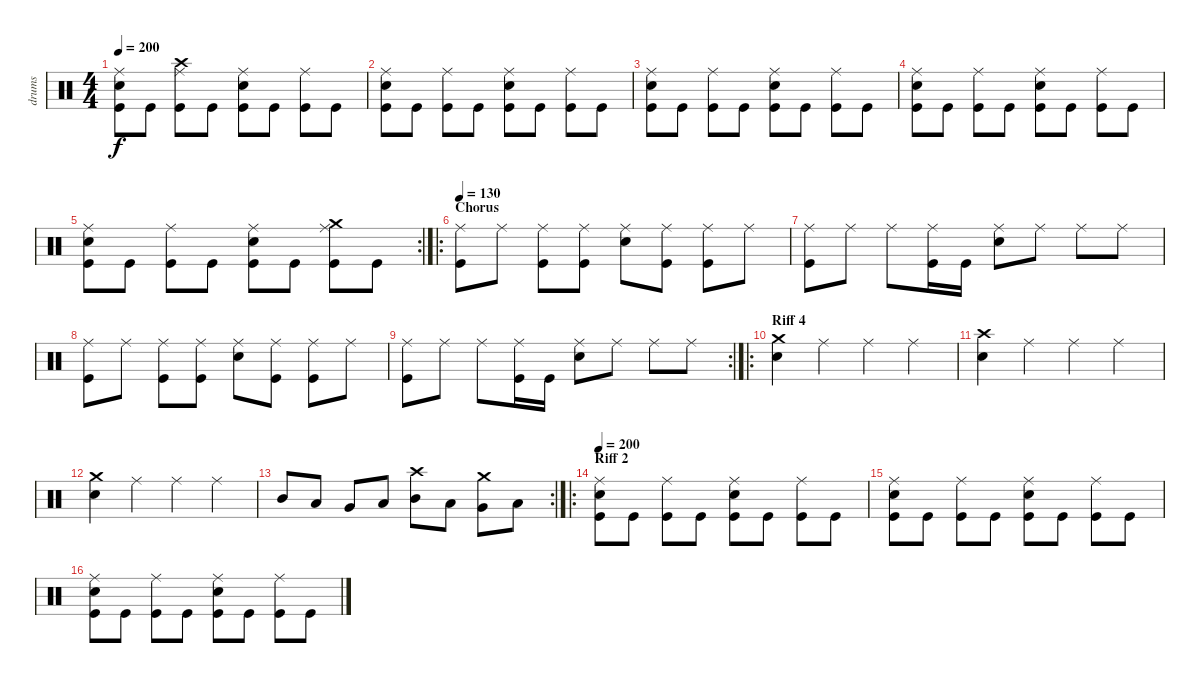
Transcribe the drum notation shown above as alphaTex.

\track ("drums" "drums") {instrument percussion}
\staff {score}
\articulation defaults
\ts (4 4)
\tempo 200
\clef neutral
\ks c
("Ride (middle)" "Snare (hit) 2" "Kick (hit)").8{dy f} "Kick (hit)".8 ("Ride (middle)" "Crash high (hit)" "Kick (hit)").8 "Kick (hit)".8 ("Ride (middle)" "Snare (hit) 2" "Kick (hit)").8 "Kick (hit)".8 ("Ride (middle)" "Kick (hit)").8 "Kick (hit)".8 |
("Ride (middle)" "Snare (hit) 2" "Kick (hit)").8 "Kick (hit)".8 ("Ride (middle)" "Kick (hit)").8 "Kick (hit)".8 ("Ride (middle)" "Snare (hit) 2" "Kick (hit)").8 "Kick (hit)".8 ("Ride (middle)" "Kick (hit)").8 "Kick (hit)".8 |
("Ride (middle)" "Snare (hit) 2" "Kick (hit)").8 "Kick (hit)".8 ("Ride (middle)" "Kick (hit)").8 "Kick (hit)".8 ("Ride (middle)" "Snare (hit) 2" "Kick (hit)").8 "Kick (hit)".8 ("Ride (middle)" "Kick (hit)").8 "Kick (hit)".8 |
("Ride (middle)" "Snare (hit) 2" "Kick (hit)").8 "Kick (hit)".8 ("Ride (middle)" "Kick (hit)").8 "Kick (hit)".8 ("Ride (middle)" "Snare (hit) 2" "Kick (hit)").8 "Kick (hit)".8 ("Ride (middle)" "Kick (hit)").8 "Kick (hit)".8 |
\rc 2
("Ride (middle)" "Snare (hit) 2" "Kick (hit)").8 "Kick (hit)".8 ("Ride (middle)" "Kick (hit)").8 "Kick (hit)".8 ("Ride (middle)" "Snare (hit) 2" "Kick (hit)").8 "Kick (hit)".8 ("Ride (middle)" "Crash medium (hit)" "Kick (hit)").8 "Kick (hit)".8 |
\ro
\section ("" "Chorus")
\tempo 130
("Ride (middle)" "Kick (hit)").8 "Ride (middle)".8 ("Ride (middle)" "Kick (hit)").8 ("Ride (middle)" "Kick (hit)").8 ("Snare (hit) 2" "Ride (middle)").8 ("Ride (middle)" "Kick (hit)").8 ("Ride (middle)" "Kick (hit)").8 "Ride (middle)".8 |
("Ride (middle)" "Kick (hit)").8 "Ride (middle)".8 "Ride (middle)".8 ("Ride (middle)" "Kick (hit)").16 "Kick (hit)".16 ("Snare (hit) 2" "Ride (middle)").8 "Ride (middle)".8 "Ride (middle)".8 "Ride (middle)".8 |
("Ride (middle)" "Kick (hit)").8 "Ride (middle)".8 ("Ride (middle)" "Kick (hit)").8 ("Ride (middle)" "Kick (hit)").8 ("Snare (hit) 2" "Ride (middle)").8 ("Ride (middle)" "Kick (hit)").8 ("Ride (middle)" "Kick (hit)").8 "Ride (middle)".8 |
\rc 2
("Ride (middle)" "Kick (hit)").8 "Ride (middle)".8 "Ride (middle)".8 ("Ride (middle)" "Kick (hit)").16 "Kick (hit)".16 ("Snare (hit) 2" "Ride (middle)").8 "Ride (middle)".8 "Ride (middle)".8 "Ride (middle)".8 |
\ro
\section ("" "Riff 4")
("Crash medium (hit)" "Snare (hit) 2").4 "Ride (middle)".4 "Ride (middle)".4 "Ride (middle)".4 |
("Crash high (hit)" "Snare (hit) 2").4 "Ride (middle)".4 "Ride (middle)".4 "Ride (middle)".4 |
("Crash medium (hit)" "Snare (hit) 2").4 "Ride (middle)".4 "Ride (middle)".4 "Ride (middle)".4 |
\rc 2 "Mid Tom (hit)".8 "Low Tom (hit)".8 "Very Low Tom (hit)".8 "Low Floor Tom (hit)".8
("Crash high (hit)" "Mid Tom (hit)").8 "Low Tom (hit)".8 ("Crash medium (hit)" "Very Low Tom (hit)").8 "Low Floor Tom (hit)".8 |
\ro
\section ("" "Riff 2")
\tempo 200
("Ride (middle)" "Snare (hit) 2" "Kick (hit)").8 "Kick (hit)".8 ("Ride (middle)" "Kick (hit)").8 "Kick (hit)".8 ("Ride (middle)" "Snare (hit) 2" "Kick (hit)").8 "Kick (hit)".8 ("Ride (middle)" "Kick (hit)").8 "Kick (hit)".8 |
("Ride (middle)" "Snare (hit) 2" "Kick (hit)").8 "Kick (hit)".8 ("Ride (middle)" "Kick (hit)").8 "Kick (hit)".8 ("Ride (middle)" "Snare (hit) 2" "Kick (hit)").8 "Kick (hit)".8 ("Ride (middle)" "Kick (hit)").8 "Kick (hit)".8 |
("Ride (middle)" "Snare (hit) 2" "Kick (hit)").8 "Kick (hit)".8 ("Ride (middle)" "Kick (hit)").8 "Kick (hit)".8 ("Ride (middle)" "Snare (hit) 2" "Kick (hit)").8 "Kick (hit)".8 ("Ride (middle)" "Kick (hit)").8 "Kick (hit)".8
